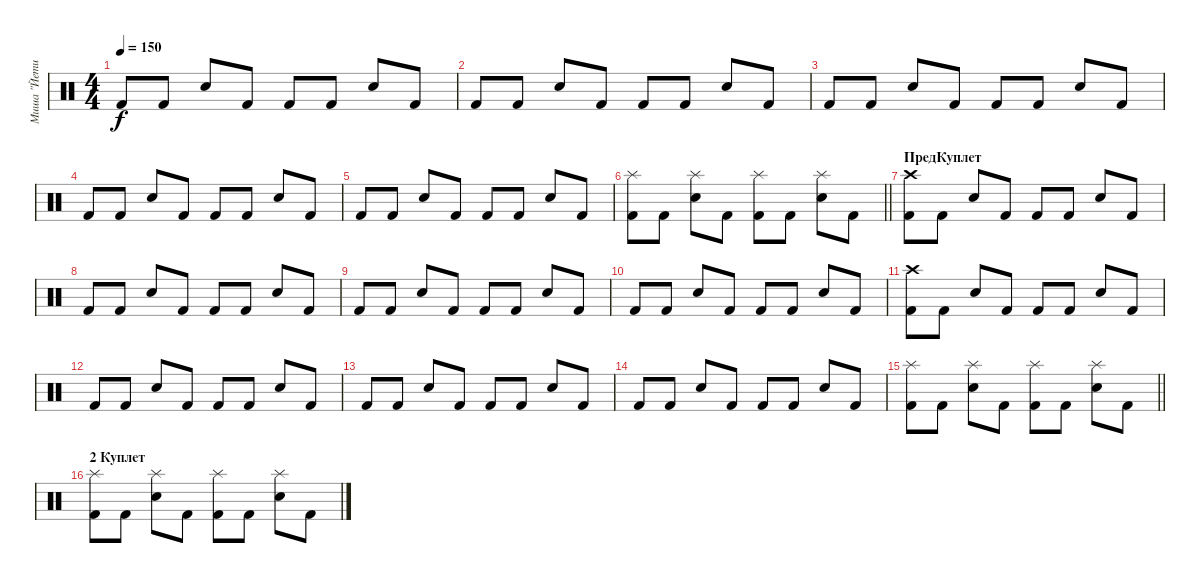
\track ("Миша \"Йети\" Евсеев" "Миша \"Йети") {instrument percussion}
\staff {score}
\articulation defaults
\ts (4 4)
\tempo 150
\clef neutral
\ks c "Kick (hit) 2".8{dy f} "Kick (hit) 2".8 "Snare (hit) 2".8 "Kick (hit) 2".8 "Kick (hit) 2".8 "Kick (hit) 2".8 "Snare (hit) 2".8 "Kick (hit) 2".8
|
"Kick (hit) 2".8 "Kick (hit) 2".8 "Snare (hit) 2".8 "Kick (hit) 2".8 "Kick (hit) 2".8 "Kick (hit) 2".8 "Snare (hit) 2".8 "Kick (hit) 2".8 |
"Kick (hit) 2".8 "Kick (hit) 2".8 "Snare (hit) 2".8 "Kick (hit) 2".8 "Kick (hit) 2".8 "Kick (hit) 2".8 "Snare (hit) 2".8 "Kick (hit) 2".8 |
"Kick (hit) 2".8 "Kick (hit) 2".8 "Snare (hit) 2".8 "Kick (hit) 2".8 "Kick (hit) 2".8 "Kick (hit) 2".8 "Snare (hit) 2".8 "Kick (hit) 2".8 |
"Kick (hit) 2".8 "Kick (hit) 2".8 "Snare (hit) 2".8 "Kick (hit) 2".8 "Kick (hit) 2".8 "Kick (hit) 2".8 "Snare (hit) 2".8 "Kick (hit) 2".8 |
\barLineRight lightlight
("Kick (hit) 2" "Splash (hit)").8 "Kick (hit) 2".8 ("Snare (hit) 2" "Splash (hit)").8 "Kick (hit) 2".8 ("Kick (hit) 2" "Splash (hit)").8 "Kick (hit) 2".8 ("Snare (hit) 2" "Splash (hit)").8 "Kick (hit) 2".8 |
\section ("" "ПредКуплет")
("Kick (hit) 2" "Crash high (hit)").8 "Kick (hit) 2".8 "Snare (hit) 2".8 "Kick (hit) 2".8 "Kick (hit) 2".8 "Kick (hit) 2".8 "Snare (hit) 2".8 "Kick (hit) 2".8 |
"Kick (hit) 2".8 "Kick (hit) 2".8 "Snare (hit) 2".8 "Kick (hit) 2".8 "Kick (hit) 2".8 "Kick (hit) 2".8 "Snare (hit) 2".8 "Kick (hit) 2".8 |
"Kick (hit) 2".8 "Kick (hit) 2".8 "Snare (hit) 2".8 "Kick (hit) 2".8 "Kick (hit) 2".8 "Kick (hit) 2".8 "Snare (hit) 2".8 "Kick (hit) 2".8 |
"Kick (hit) 2".8 "Kick (hit) 2".8 "Snare (hit) 2".8 "Kick (hit) 2".8 "Kick (hit) 2".8 "Kick (hit) 2".8 "Snare (hit) 2".8 "Kick (hit) 2".8 |
("Kick (hit) 2" "Crash high (hit)").8 "Kick (hit) 2".8 "Snare (hit) 2".8 "Kick (hit) 2".8 "Kick (hit) 2".8 "Kick (hit) 2".8 "Snare (hit) 2".8 "Kick (hit) 2".8 |
"Kick (hit) 2".8 "Kick (hit) 2".8 "Snare (hit) 2".8 "Kick (hit) 2".8 "Kick (hit) 2".8 "Kick (hit) 2".8 "Snare (hit) 2".8 "Kick (hit) 2".8 |
"Kick (hit) 2".8 "Kick (hit) 2".8 "Snare (hit) 2".8 "Kick (hit) 2".8 "Kick (hit) 2".8 "Kick (hit) 2".8 "Snare (hit) 2".8 "Kick (hit) 2".8 |
"Kick (hit) 2".8 "Kick (hit) 2".8 "Snare (hit) 2".8 "Kick (hit) 2".8 "Kick (hit) 2".8 "Kick (hit) 2".8 "Snare (hit) 2".8 "Kick (hit) 2".8 |
\barLineRight lightlight
("Kick (hit) 2" "Splash (hit)").8 "Kick (hit) 2".8 ("Snare (hit) 2" "Splash (hit)").8 "Kick (hit) 2".8 ("Kick (hit) 2" "Splash (hit)").8 "Kick (hit) 2".8 ("Snare (hit) 2" "Splash (hit)").8 "Kick (hit) 2".8 |
\section ("" "2 Куплет")
("Kick (hit) 2" "Splash (hit)").8 "Kick (hit) 2".8 ("Snare (hit) 2" "Splash (hit)").8 "Kick (hit) 2".8 ("Kick (hit) 2" "Splash (hit)").8 "Kick (hit) 2".8 ("Snare (hit) 2" "Splash (hit)").8 "Kick (hit) 2".8
